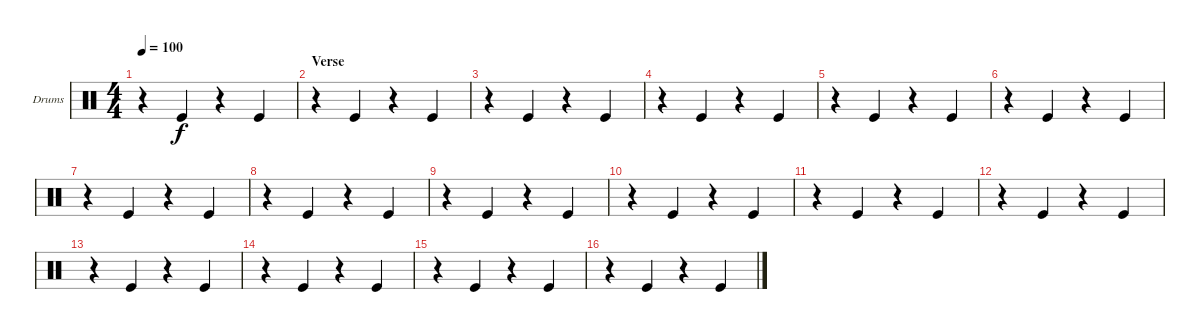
\bracketExtendMode groupsimilarinstruments
\firstSystemTrackNameOrientation horizontal
\otherSystemsTrackNameOrientation horizontal
\track ("Drumkit" "Drums") {instrument percussion}
\staff {score}
\articulation defaults
\ts (4 4)
\tempo 100
\clef neutral
\ks c
r.4{dy f} "Kick (hit)".4 r.4 "Kick (hit)".4 |
\section ("" "Verse")
r.4 "Kick (hit)".4 r.4 "Kick (hit)".4 |
r.4 "Kick (hit)".4 r.4 "Kick (hit)".4 |
r.4 "Kick (hit)".4 r.4 "Kick (hit)".4 |
r.4 "Kick (hit)".4 r.4 "Kick (hit)".4 |
r.4 "Kick (hit)".4 r.4 "Kick (hit)".4 |
r.4 "Kick (hit)".4 r.4 "Kick (hit)".4 |
r.4 "Kick (hit)".4 r.4 "Kick (hit)".4 |
r.4 "Kick (hit)".4 r.4 "Kick (hit)".4 |
r.4 "Kick (hit)".4 r.4 "Kick (hit)".4 |
r.4 "Kick (hit)".4 r.4 "Kick (hit)".4 |
r.4 "Kick (hit)".4 r.4 "Kick (hit)".4 |
r.4 "Kick (hit)".4 r.4 "Kick (hit)".4 |
r.4 "Kick (hit)".4 r.4 "Kick (hit)".4 |
r.4 "Kick (hit)".4 r.4 "Kick (hit)".4 |
r.4 "Kick (hit)".4 r.4 "Kick (hit)".4
